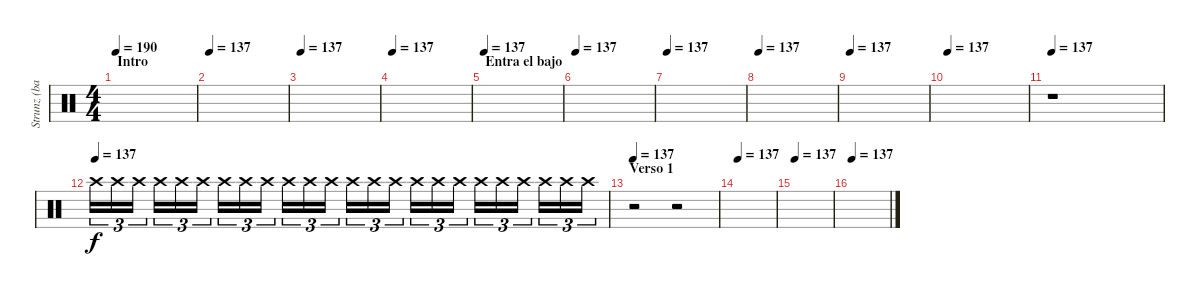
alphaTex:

\track ("Strunz (bateria)" "Strunz (ba") {instrument percussion}
\staff {score}
\articulation defaults
\ts (4 4)
\section ("" "Intro")
\tempo 190
\tempo 137
\tempo 190
\clef neutral
\ks c
|
\tempo 137
|
\tempo 137
|
\tempo 137
|
\section ("" "Entra el bajo")
\tempo 137
|
\tempo 137
|
\tempo 137
|
\tempo 137
|
\tempo 137
|
\tempo 137
|
\tempo 137
r.1{volume 0} |
\tempo (137)
"Crash high (hit)".16{tu (3 2) volume 10} "Crash high (hit)".16{tu (3 2)} "Crash high (hit)".16{tu (3 2)} "Crash high (hit)".16{tu (3 2)} "Crash high (hit)".16{tu (3 2)} "Crash high (hit)".16{tu (3 2)} "Crash high (hit)".16{tu (3 2)} "Crash high (hit)".16{tu (3 2)} "Crash high (hit)".16{tu (3 2)} "Crash high (hit)".16{tu (3 2)} "Crash high (hit)".16{tu (3 2)} "Crash high (hit)".16{tu (3 2)} "Crash high (hit)".16{tu (3 2)} "Crash high (hit)".16{tu (3 2)} "Crash high (hit)".16{tu (3 2)} "Crash high (hit)".16{tu (3 2)} "Crash high (hit)".16{tu (3 2)} "Crash high (hit)".16{tu (3 2)} "Crash high (hit)".16{tu (3 2)} "Crash high (hit)".16{tu (3 2)} "Crash high (hit)".16{tu (3 2)} "Crash high (hit)".16{tu (3 2)} "Crash high (hit)".16{tu (3 2)} "Crash high (hit)".16{tu (3 2)} |
\section ("" "Verso 1")
\tempo 137
r.2 r.2{volume 13} |
\tempo 137
|
\tempo 137
|
\tempo 137
